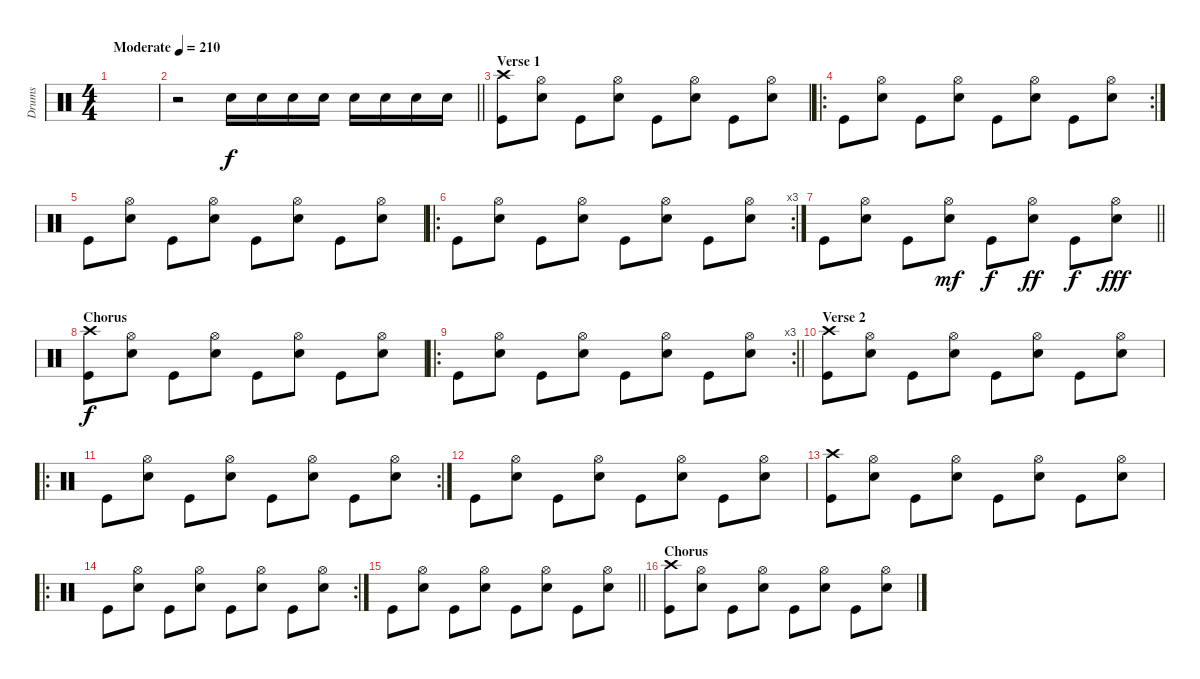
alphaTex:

\track ("Drums" "Drums") {instrument percussion}
\staff {score}
\articulation defaults
\ts (4 4)
\tempo (210 "Moderate")
\clef neutral
\ks c
|
\barLineRight lightlight
r.2 "Snare (hit) 2".16 "Snare (hit) 2".16 "Snare (hit) 2".16 "Snare (hit) 2".16 "Snare (hit) 2".16 "Snare (hit) 2".16 "Snare (hit) 2".16 "Snare (hit) 2".16 |
\section ("" "Verse 1")
("Crash high (hit)" "Kick (hit)").8 ("Hi-Hat (open)" "Snare (hit) 2").8 "Kick (hit)".8 ("Hi-Hat (open)" "Snare (hit) 2").8 "Kick (hit)".8 ("Hi-Hat (open)" "Snare (hit) 2").8 "Kick (hit)".8 ("Hi-Hat (open)" "Snare (hit) 2").8 |
\ro
\rc 2 "Kick (hit)".8
("Hi-Hat (open)" "Snare (hit) 2").8 "Kick (hit)".8 ("Hi-Hat (open)" "Snare (hit) 2").8 "Kick (hit)".8 ("Hi-Hat (open)" "Snare (hit) 2").8 "Kick (hit)".8 ("Hi-Hat (open)" "Snare (hit) 2").8 |
"Kick (hit)".8 ("Hi-Hat (open)" "Snare (hit) 2").8 "Kick (hit)".8 ("Hi-Hat (open)" "Snare (hit) 2").8 "Kick (hit)".8 ("Hi-Hat (open)" "Snare (hit) 2").8 "Kick (hit)".8 ("Hi-Hat (open)" "Snare (hit) 2").8 |
\ro
\rc 3 "Kick (hit)".8
("Hi-Hat (open)" "Snare (hit) 2").8 "Kick (hit)".8 ("Hi-Hat (open)" "Snare (hit) 2").8 "Kick (hit)".8 ("Hi-Hat (open)" "Snare (hit) 2").8 "Kick (hit)".8 ("Hi-Hat (open)" "Snare (hit) 2").8 |
\barLineRight lightlight "Kick (hit)".8
("Hi-Hat (open)" "Snare (hit) 2").8 "Kick (hit)".8 ("Hi-Hat (open)" "Snare (hit) 2").8{dy mf} "Kick (hit)".8{dy f} ("Hi-Hat (open)" "Snare (hit) 2").8{dy ff} "Kick (hit)".8{dy f} ("Hi-Hat (open)" "Snare (hit) 2").8{dy fff} |
\section ("" "Chorus")
("Crash high (hit)" "Kick (hit)").8{dy f} ("Hi-Hat (open)" "Snare (hit) 2").8 "Kick (hit)".8 ("Hi-Hat (open)" "Snare (hit) 2").8 "Kick (hit)".8 ("Hi-Hat (open)" "Snare (hit) 2").8 "Kick (hit)".8 ("Hi-Hat (open)" "Snare (hit) 2").8 |
\ro
\rc 3
\barLineRight lightlight "Kick (hit)".8
("Hi-Hat (open)" "Snare (hit) 2").8 "Kick (hit)".8 ("Hi-Hat (open)" "Snare (hit) 2").8 "Kick (hit)".8 ("Hi-Hat (open)" "Snare (hit) 2").8 "Kick (hit)".8 ("Hi-Hat (open)" "Snare (hit) 2").8 |
\section ("" "Verse 2")
("Crash high (hit)" "Kick (hit)").8 ("Hi-Hat (open)" "Snare (hit) 2").8 "Kick (hit)".8 ("Hi-Hat (open)" "Snare (hit) 2").8 "Kick (hit)".8 ("Hi-Hat (open)" "Snare (hit) 2").8 "Kick (hit)".8 ("Hi-Hat (open)" "Snare (hit) 2").8 |
\ro
\rc 2 "Kick (hit)".8
("Hi-Hat (open)" "Snare (hit) 2").8 "Kick (hit)".8 ("Hi-Hat (open)" "Snare (hit) 2").8 "Kick (hit)".8 ("Hi-Hat (open)" "Snare (hit) 2").8 "Kick (hit)".8 ("Hi-Hat (open)" "Snare (hit) 2").8 |
"Kick (hit)".8 ("Hi-Hat (open)" "Snare (hit) 2").8 "Kick (hit)".8 ("Hi-Hat (open)" "Snare (hit) 2").8 "Kick (hit)".8 ("Hi-Hat (open)" "Snare (hit) 2").8 "Kick (hit)".8 ("Hi-Hat (open)" "Snare (hit) 2").8 |
("Crash high (hit)" "Kick (hit)").8 ("Hi-Hat (open)" "Snare (hit) 2").8 "Kick (hit)".8 ("Hi-Hat (open)" "Snare (hit) 2").8 "Kick (hit)".8 ("Hi-Hat (open)" "Snare (hit) 2").8 "Kick (hit)".8 ("Hi-Hat (open)" "Snare (hit) 2").8 |
\ro
\rc 2 "Kick (hit)".8
("Hi-Hat (open)" "Snare (hit) 2").8 "Kick (hit)".8 ("Hi-Hat (open)" "Snare (hit) 2").8 "Kick (hit)".8 ("Hi-Hat (open)" "Snare (hit) 2").8 "Kick (hit)".8 ("Hi-Hat (open)" "Snare (hit) 2").8 |
\barLineRight lightlight "Kick (hit)".8
("Hi-Hat (open)" "Snare (hit) 2").8 "Kick (hit)".8 ("Hi-Hat (open)" "Snare (hit) 2").8 "Kick (hit)".8 ("Hi-Hat (open)" "Snare (hit) 2").8 "Kick (hit)".8 ("Hi-Hat (open)" "Snare (hit) 2").8 |
\section ("" "Chorus")
("Crash high (hit)" "Kick (hit)").8 ("Hi-Hat (open)" "Snare (hit) 2").8 "Kick (hit)".8 ("Hi-Hat (open)" "Snare (hit) 2").8 "Kick (hit)".8 ("Hi-Hat (open)" "Snare (hit) 2").8 "Kick (hit)".8 ("Hi-Hat (open)" "Snare (hit) 2").8
